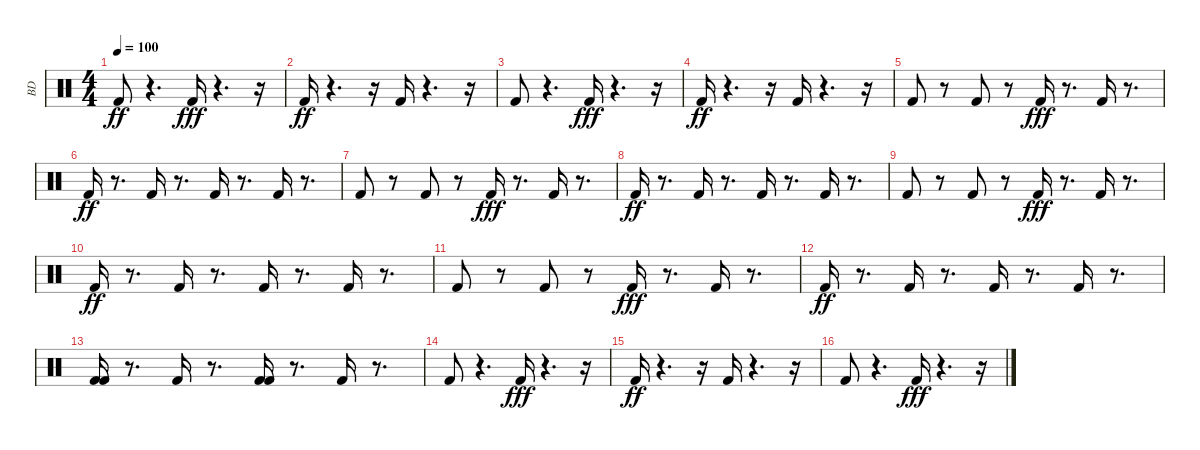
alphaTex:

\track ("BD" "BD") {instrument percussion}
\staff {score}
\articulation defaults
\ts (4 4)
\tempo 100
\clef neutral
\ks c "Kick (hit) 2".8{dy ff}
r.4{d} "Kick (hit) 2".16{dy fff} r.4{d} r.16 |
"Kick (hit) 2".16{dy ff} r.4{d} r.16 "Kick (hit) 2".16 r.4{d} r.16 |
"Kick (hit) 2".8 r.4{d} "Kick (hit) 2".16{dy fff} r.4{d} r.16 |
"Kick (hit) 2".16{dy ff} r.4{d} r.16 "Kick (hit) 2".16 r.4{d} r.16 |
"Kick (hit) 2".8 r.8 "Kick (hit) 2".8 r.8 "Kick (hit) 2".16{dy fff} r.8{d} "Kick (hit) 2".16 r.8{d} |
"Kick (hit) 2".16{dy ff} r.8{d} "Kick (hit) 2".16 r.8{d} "Kick (hit) 2".16 r.8{d} "Kick (hit) 2".16 r.8{d} |
"Kick (hit) 2".8 r.8 "Kick (hit) 2".8 r.8 "Kick (hit) 2".16{dy fff} r.8{d} "Kick (hit) 2".16 r.8{d} |
"Kick (hit) 2".16{dy ff} r.8{d} "Kick (hit) 2".16 r.8{d} "Kick (hit) 2".16 r.8{d} "Kick (hit) 2".16 r.8{d} |
"Kick (hit) 2".8 r.8 "Kick (hit) 2".8 r.8 "Kick (hit) 2".16{dy fff} r.8{d} "Kick (hit) 2".16 r.8{d} |
"Kick (hit) 2".16{dy ff} r.8{d} "Kick (hit) 2".16 r.8{d} "Kick (hit) 2".16 r.8{d} "Kick (hit) 2".16 r.8{d} |
"Kick (hit) 2".8 r.8 "Kick (hit) 2".8 r.8 "Kick (hit) 2".16{dy fff} r.8{d} "Kick (hit) 2".16 r.8{d} |
"Kick (hit) 2".16{dy ff} r.8{d} "Kick (hit) 2".16 r.8{d} "Kick (hit) 2".16 r.8{d} "Kick (hit) 2".16 r.8{d} |
("Kick (hit) 2" "Kick (hit) 2").16 r.8{d} "Kick (hit) 2".16 r.8{d} ("Kick (hit) 2" "Kick (hit) 2").16 r.8{d} "Kick (hit) 2".16 r.8{d} |
"Kick (hit) 2".8 r.4{d} "Kick (hit) 2".16{dy fff} r.4{d} r.16 |
"Kick (hit) 2".16{dy ff} r.4{d} r.16 "Kick (hit) 2".16 r.4{d} r.16 |
"Kick (hit) 2".8 r.4{d} "Kick (hit) 2".16{dy fff} r.4{d} r.16
